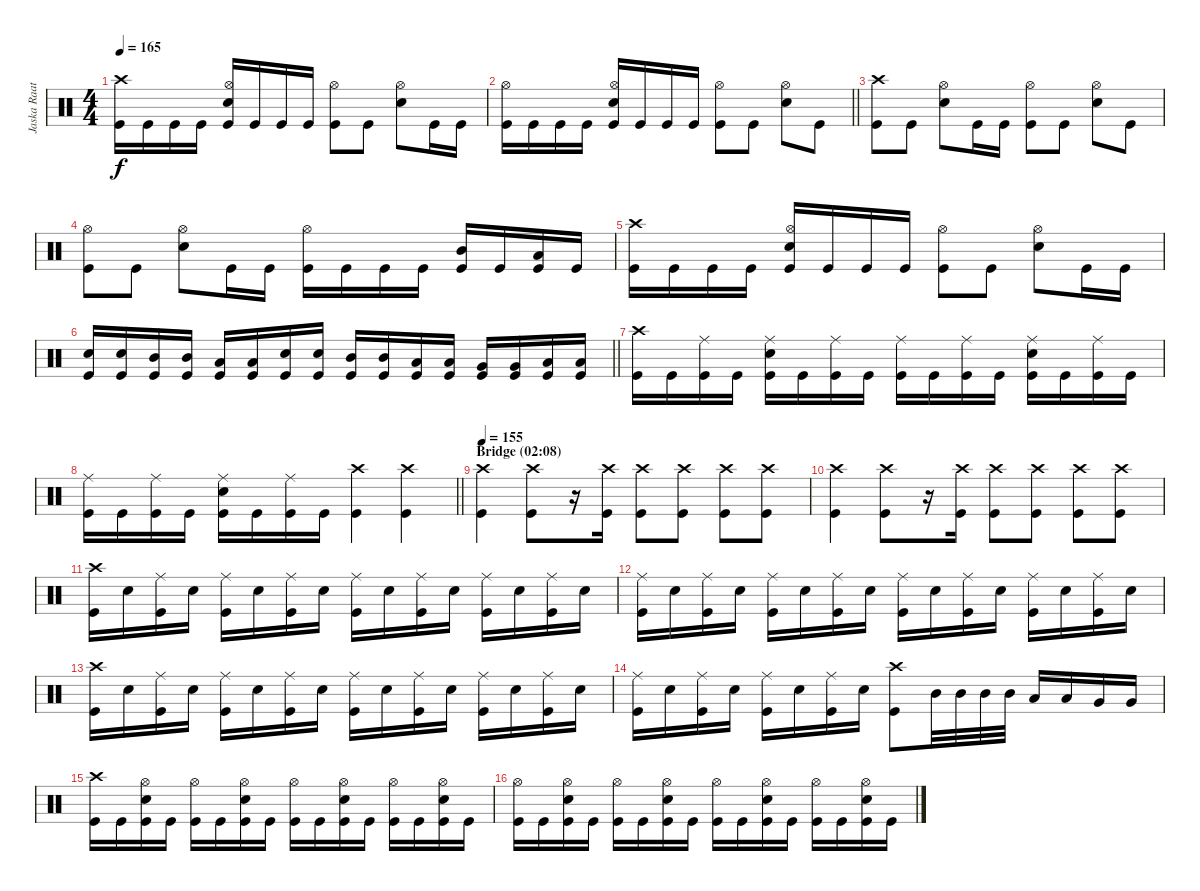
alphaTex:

\track ("Jaska Raatikainen" "Jaska Raat") {instrument percussion}
\staff {score}
\articulation defaults
\ts (4 4)
\tempo 165
\clef neutral
\ks c
("Crash high (hit)" "Kick (hit)").16{dy f} "Kick (hit)".16 "Kick (hit)".16 "Kick (hit)".16 ("Hi-Hat (open)" "Electric Snare (hit)" "Kick (hit)").16 "Kick (hit)".16 "Kick (hit)".16 "Kick (hit)".16 ("Hi-Hat (open)" "Kick (hit)").8 "Kick (hit)".8 ("Hi-Hat (open)" "Electric Snare (hit)").8 "Kick (hit)".16 "Kick (hit)".16 |
\barLineRight lightlight
("Hi-Hat (open)" "Kick (hit)").16 "Kick (hit)".16 "Kick (hit)".16 "Kick (hit)".16 ("Hi-Hat (open)" "Electric Snare (hit)" "Kick (hit)").16 "Kick (hit)".16 "Kick (hit)".16 "Kick (hit)".16 ("Hi-Hat (open)" "Kick (hit)").8 "Kick (hit)".8 ("Hi-Hat (open)" "Electric Snare (hit)").8 "Kick (hit)".8 |
("Crash high (hit)" "Kick (hit)").8 "Kick (hit)".8 ("Hi-Hat (open)" "Electric Snare (hit)").8 "Kick (hit)".16 "Kick (hit)".16 ("Hi-Hat (open)" "Kick (hit)").8 "Kick (hit)".8 ("Hi-Hat (open)" "Electric Snare (hit)").8 "Kick (hit)".8 |
("Hi-Hat (open)" "Kick (hit)").8 "Kick (hit)".8 ("Hi-Hat (open)" "Electric Snare (hit)").8 "Kick (hit)".16 "Kick (hit)".16 ("Hi-Hat (open)" "Kick (hit)").16 "Kick (hit)".16 "Kick (hit)".16 "Kick (hit)".16 ("Mid Tom (hit)" "Kick (hit)").16 "Kick (hit)".16 ("Low Tom (hit)" "Kick (hit)").16 "Kick (hit)".16 |
("Crash high (hit)" "Kick (hit)").16 "Kick (hit)".16 "Kick (hit)".16 "Kick (hit)".16 ("Hi-Hat (open)" "Electric Snare (hit)" "Kick (hit)").16 "Kick (hit)".16 "Kick (hit)".16 "Kick (hit)".16 ("Hi-Hat (open)" "Kick (hit)").8 "Kick (hit)".8 ("Hi-Hat (open)" "Electric Snare (hit)").8 "Kick (hit)".16 "Kick (hit)".16 |
\barLineRight lightlight
("Electric Snare (hit)" "Kick (hit)").16 ("Electric Snare (hit)" "Kick (hit)").16 ("Mid Tom (hit)" "Kick (hit)").16 ("Mid Tom (hit)" "Kick (hit)").16 ("Low Tom (hit)" "Kick (hit)").16 ("Low Tom (hit)" "Kick (hit)").16 ("Electric Snare (hit)" "Kick (hit)").16 ("Electric Snare (hit)" "Kick (hit)").16 ("Mid Tom (hit)" "Kick (hit)").16 ("Mid Tom (hit)" "Kick (hit)").16 ("Low Tom (hit)" "Kick (hit)").16 ("Low Tom (hit)" "Kick (hit)").16 ("Very Low Tom (hit)" "Kick (hit)").16 ("Very Low Tom (hit)" "Kick (hit)").16 ("Low Floor Tom (hit)" "Kick (hit)").16 ("Low Floor Tom (hit)" "Kick (hit)").16 |
("Crash high (hit)" "Kick (hit)").16 "Kick (hit)".16 ("Ride (middle)" "Kick (hit)").16 "Kick (hit)".16 ("Ride (middle)" "Electric Snare (hit)" "Kick (hit)").16 "Kick (hit)".16 ("Ride (middle)" "Kick (hit)").16 "Kick (hit)".16 ("Ride (middle)" "Kick (hit)").16 "Kick (hit)".16 ("Ride (middle)" "Kick (hit)").16 "Kick (hit)".16 ("Ride (middle)" "Electric Snare (hit)" "Kick (hit)").16 "Kick (hit)".16 ("Ride (middle)" "Kick (hit)").16 "Kick (hit)".16 |
\barLineRight lightlight
("Ride (middle)" "Kick (hit)").16 "Kick (hit)".16 ("Ride (middle)" "Kick (hit)").16 "Kick (hit)".16 ("Ride (middle)" "Electric Snare (hit)" "Kick (hit)").16 "Kick (hit)".16 ("Ride (middle)" "Kick (hit)").16 "Kick (hit)".16 ("Crash high (hit)" "Kick (hit)").4 ("Crash high (hit)" "Kick (hit)").4 |
\section ("" "Bridge (02:08)")
\tempo 155
("Crash high (hit)" "Kick (hit)").4 ("Crash high (hit)" "Kick (hit)").8 r.16 ("Crash high (hit)" "Kick (hit)").16 ("Crash high (hit)" "Kick (hit)").8 ("Crash high (hit)" "Kick (hit)").8 ("Crash high (hit)" "Kick (hit)").8 ("Crash high (hit)" "Kick (hit)").8 |
("Crash high (hit)" "Kick (hit)").4 ("Crash high (hit)" "Kick (hit)").8 r.16 ("Crash high (hit)" "Kick (hit)").16 ("Crash high (hit)" "Kick (hit)").8 ("Crash high (hit)" "Kick (hit)").8 ("Crash high (hit)" "Kick (hit)").8 ("Crash high (hit)" "Kick (hit)").8 |
("Crash high (hit)" "Kick (hit)").16 "Electric Snare (hit)".16 ("Ride (middle)" "Kick (hit)").16 "Electric Snare (hit)".16 ("Ride (middle)" "Kick (hit)").16 "Electric Snare (hit)".16 ("Ride (middle)" "Kick (hit)").16 "Electric Snare (hit)".16 ("Ride (middle)" "Kick (hit)").16 "Electric Snare (hit)".16 ("Ride (middle)" "Kick (hit)").16 "Electric Snare (hit)".16 ("Ride (middle)" "Kick (hit)").16 "Electric Snare (hit)".16 ("Ride (middle)" "Kick (hit)").16 "Electric Snare (hit)".16 |
("Ride (middle)" "Kick (hit)").16 "Electric Snare (hit)".16 ("Ride (middle)" "Kick (hit)").16 "Electric Snare (hit)".16 ("Ride (middle)" "Kick (hit)").16 "Electric Snare (hit)".16 ("Ride (middle)" "Kick (hit)").16 "Electric Snare (hit)".16 ("Ride (middle)" "Kick (hit)").16 "Electric Snare (hit)".16 ("Ride (middle)" "Kick (hit)").16 "Electric Snare (hit)".16 ("Ride (middle)" "Kick (hit)").16 "Electric Snare (hit)".16 ("Ride (middle)" "Kick (hit)").16 "Electric Snare (hit)".16 |
("Crash high (hit)" "Kick (hit)").16 "Electric Snare (hit)".16 ("Ride (middle)" "Kick (hit)").16 "Electric Snare (hit)".16 ("Ride (middle)" "Kick (hit)").16 "Electric Snare (hit)".16 ("Ride (middle)" "Kick (hit)").16 "Electric Snare (hit)".16 ("Ride (middle)" "Kick (hit)").16 "Electric Snare (hit)".16 ("Ride (middle)" "Kick (hit)").16 "Electric Snare (hit)".16 ("Ride (middle)" "Kick (hit)").16 "Electric Snare (hit)".16 ("Ride (middle)" "Kick (hit)").16 "Electric Snare (hit)".16 |
("Ride (middle)" "Kick (hit)").16 "Electric Snare (hit)".16 ("Ride (middle)" "Kick (hit)").16 "Electric Snare (hit)".16 ("Ride (middle)" "Kick (hit)").16 "Electric Snare (hit)".16 ("Ride (middle)" "Kick (hit)").16 "Electric Snare (hit)".16 ("Crash high (hit)" "Kick (hit)").8 "Mid Tom (hit)".32 "Mid Tom (hit)".32 "Mid Tom (hit)".32 "Mid Tom (hit)".32 "Low Tom (hit)".16 "Low Tom (hit)".16 "Very Low Tom (hit)".16 "Very Low Tom (hit)".16 |
("Crash high (hit)" "Kick (hit)").16 "Kick (hit)".16 ("Hi-Hat (open)" "Electric Snare (hit)" "Kick (hit)").16 "Kick (hit)".16 ("Hi-Hat (open)" "Kick (hit)").16 "Kick (hit)".16 ("Hi-Hat (open)" "Electric Snare (hit)" "Kick (hit)").16 "Kick (hit)".16 ("Hi-Hat (open)" "Kick (hit)").16 "Kick (hit)".16 ("Hi-Hat (open)" "Electric Snare (hit)" "Kick (hit)").16 "Kick (hit)".16 ("Hi-Hat (open)" "Kick (hit)").16 "Kick (hit)".16 ("Hi-Hat (open)" "Electric Snare (hit)" "Kick (hit)").16 "Kick (hit)".16 |
("Hi-Hat (open)" "Kick (hit)").16 "Kick (hit)".16 ("Hi-Hat (open)" "Electric Snare (hit)" "Kick (hit)").16 "Kick (hit)".16 ("Hi-Hat (open)" "Kick (hit)").16 "Kick (hit)".16 ("Hi-Hat (open)" "Electric Snare (hit)" "Kick (hit)").16 "Kick (hit)".16 ("Hi-Hat (open)" "Kick (hit)").16 "Kick (hit)".16 ("Hi-Hat (open)" "Electric Snare (hit)" "Kick (hit)").16 "Kick (hit)".16 ("Hi-Hat (open)" "Kick (hit)").16 "Kick (hit)".16 ("Hi-Hat (open)" "Electric Snare (hit)" "Kick (hit)").16 "Kick (hit)".16
